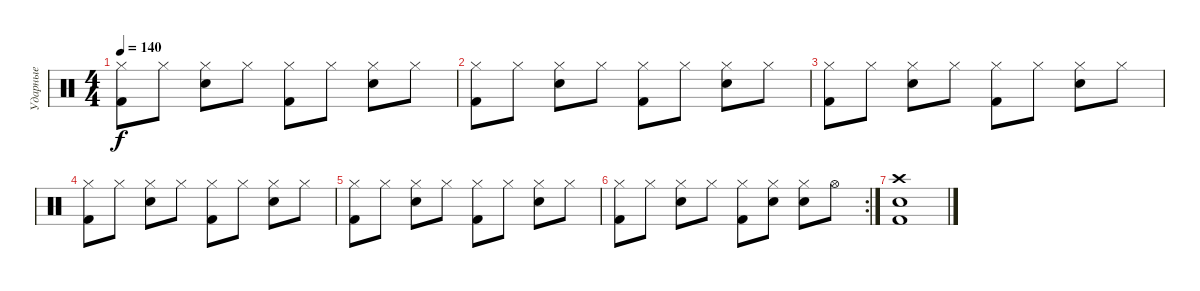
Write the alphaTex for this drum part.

\track ("Ударные" "Ударные") {instrument percussion}
\staff {score}
\articulation defaults
\ts (4 4)
\tempo 140
\clef neutral
\ks c
("Hi-Hat (closed)" "Kick (hit) 2").8{dy f} "Hi-Hat (closed)".8 ("Hi-Hat (closed)" "Snare (hit) 2").8 "Hi-Hat (closed)".8 ("Hi-Hat (closed)" "Kick (hit) 2").8 "Hi-Hat (closed)".8 ("Hi-Hat (closed)" "Snare (hit) 2").8 "Hi-Hat (closed)".8 |
("Hi-Hat (closed)" "Kick (hit) 2").8 "Hi-Hat (closed)".8 ("Hi-Hat (closed)" "Snare (hit) 2").8 "Hi-Hat (closed)".8 ("Hi-Hat (closed)" "Kick (hit) 2").8 "Hi-Hat (closed)".8 ("Hi-Hat (closed)" "Snare (hit) 2").8 "Hi-Hat (closed)".8 |
("Hi-Hat (closed)" "Kick (hit) 2").8 "Hi-Hat (closed)".8 ("Hi-Hat (closed)" "Snare (hit) 2").8 "Hi-Hat (closed)".8 ("Hi-Hat (closed)" "Kick (hit) 2").8 "Hi-Hat (closed)".8 ("Hi-Hat (closed)" "Snare (hit) 2").8 "Hi-Hat (closed)".8 |
("Hi-Hat (closed)" "Kick (hit) 2").8 "Hi-Hat (closed)".8 ("Hi-Hat (closed)" "Snare (hit) 2").8 "Hi-Hat (closed)".8 ("Hi-Hat (closed)" "Kick (hit) 2").8 "Hi-Hat (closed)".8 ("Hi-Hat (closed)" "Snare (hit) 2").8 "Hi-Hat (closed)".8 |
("Hi-Hat (closed)" "Kick (hit) 2").8 "Hi-Hat (closed)".8 ("Hi-Hat (closed)" "Snare (hit) 2").8 "Hi-Hat (closed)".8 ("Hi-Hat (closed)" "Kick (hit) 2").8 "Hi-Hat (closed)".8 ("Hi-Hat (closed)" "Snare (hit) 2").8 "Hi-Hat (closed)".8 |
\rc 2
("Hi-Hat (closed)" "Kick (hit) 2").8 "Hi-Hat (closed)".8 ("Hi-Hat (closed)" "Snare (hit) 2").8 "Hi-Hat (closed)".8 ("Hi-Hat (closed)" "Kick (hit) 2").8 ("Hi-Hat (closed)" "Snare (hit) 2").8 ("Hi-Hat (closed)" "Snare (hit) 2").8 "Hi-Hat (open)".8 |
("Crash high (hit)" "Snare (hit) 2" "Kick (hit) 2").1
